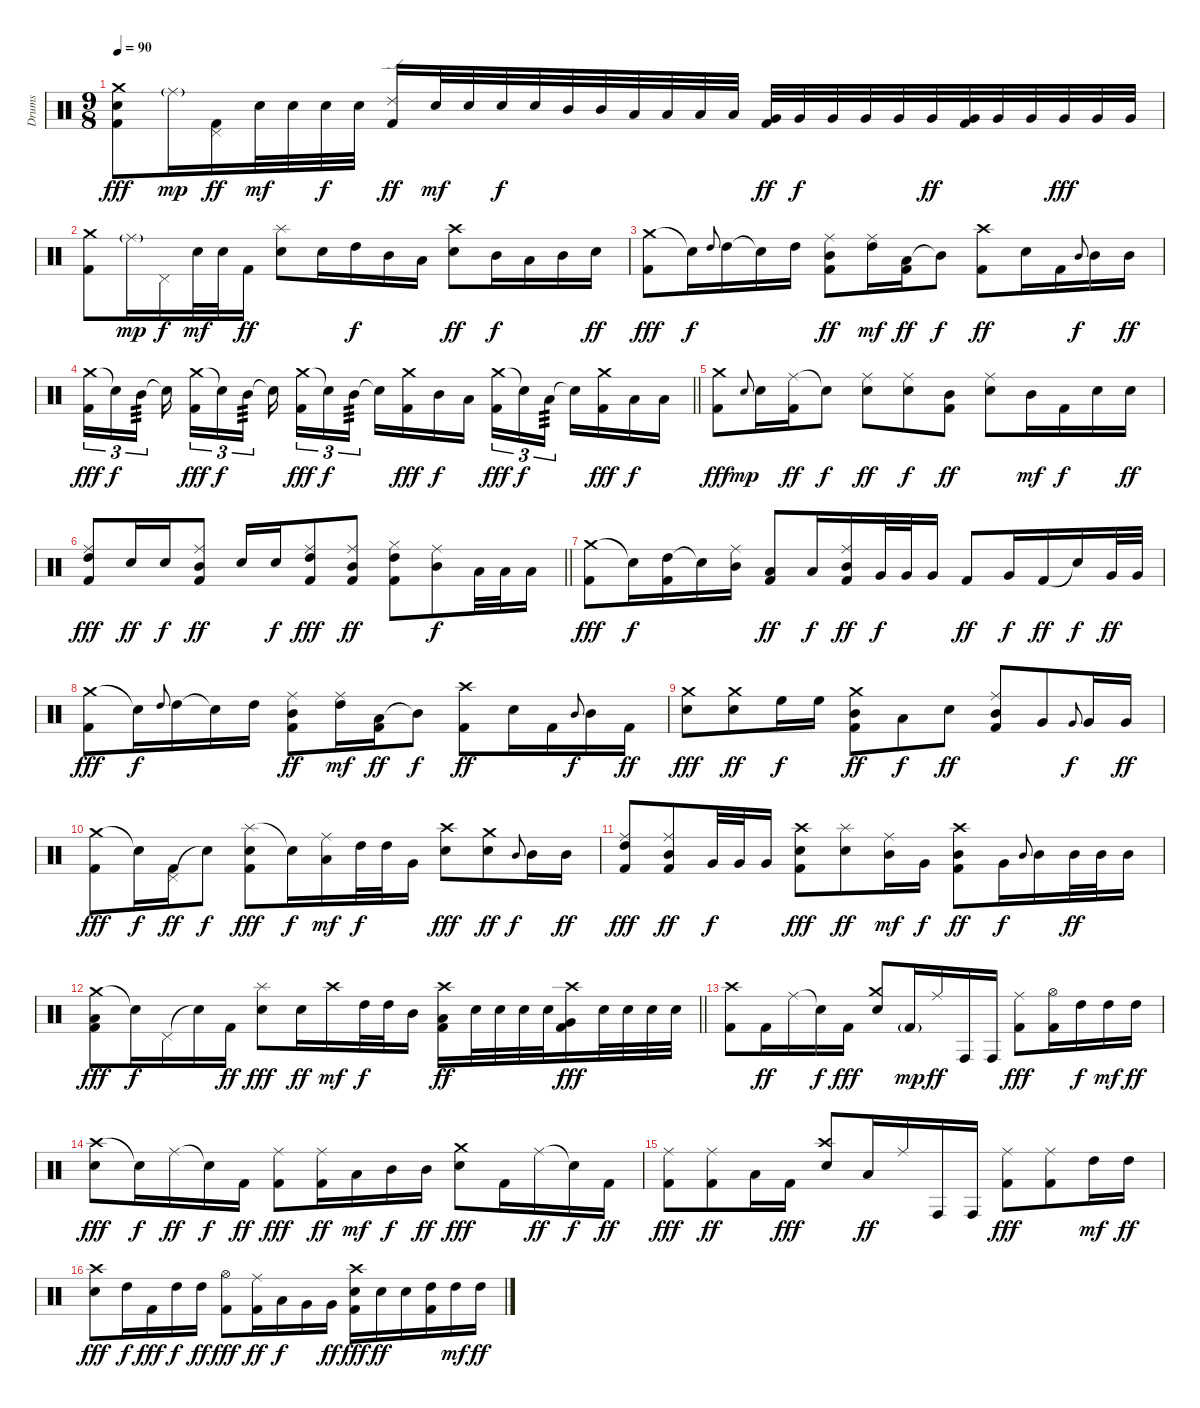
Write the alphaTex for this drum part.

\track ("Drums" "Drums") {instrument percussion}
\staff {score}
\articulation defaults
\ts (9 8)
\tempo 90
\clef neutral
\ks c
("Crash medium (hit)" "Snare (hit) 2" "Kick (hit) 2").8{dy fff} "Ride (middle)"{g}.16{dy mp} ("Pedal Hi-Hat (hit)" "Kick (hit) 2").16{dy ff} "Snare (hit) 2".32{dy mf} "Snare (hit) 2".32 "Snare (hit) 2".32{dy f} "Snare (hit) 2".32 ("Ride (edge) 2" "Kick (hit) 2").16{dy ff} "Snare (hit) 2".32{dy mf} "Snare (hit) 2".32 "Snare (hit) 2".32{dy f} "Snare (hit) 2".32 "Mid Tom (hit)".32 "Mid Tom (hit)".32 "Low Tom (hit)".32 "Low Tom (hit)".32 "Low Tom (hit)".32 "Low Tom (hit)".32 ("Very Low Tom (hit)" "Kick (hit) 2").32{dy ff} "Very Low Tom (hit)".32{dy f} "Very Low Tom (hit)".32 "Very Low Tom (hit)".32 "Very Low Tom (hit)".32 "Very Low Tom (hit)".32{dy ff} ("Very Low Tom (hit)" "Kick (hit) 2").32 "Very Low Tom (hit)".32 "Very Low Tom (hit)".32 "Very Low Tom (hit)".32{dy fff} "Very Low Tom (hit)".32 "Very Low Tom (hit)".32 |
("Crash medium (hit)" "Kick (hit) 2").8 "Ride (middle)"{g}.16{dy mp} "Pedal Hi-Hat (hit)".16{dy f} "Snare (hit) 2".32{dy mf} "Snare (hit) 2".32 "Kick (hit) 2".16{dy ff} ("Splash (hit)" "Snare (hit) 2").8 "Snare (hit) 2".16 "High Tom (hit)".16{dy f} "Mid Tom (hit)".16 "Low Tom (hit)".16 ("Crash high (hit)" "Snare (hit) 2").8{dy ff} "Mid Tom (hit)".16{dy f} "Low Tom (hit)".16 "Mid Tom (hit)".16 "Snare (hit) 2".16{dy ff} |
("Crash medium (hit)" "Kick (hit) 2").8{dy fff} "Snare (hit)"{t}.16{dy f} "High Tom (hit)".8{gr onbeat} "High Tom (hit)".16 "Snare (hit)"{t}.16 "High Tom (hit)".16 ("Ride (middle)" "Mid Tom (hit)" "Kick (hit) 2").8{dy ff} ("Ride (middle)" "High Tom (hit)").16{dy mf} ("Low Tom (hit)" "Kick (hit) 2").16{dy ff} "Mid Tom (hit)"{t}.8{dy f} ("Crash high (hit)" "Kick (hit) 2").8{dy ff} "Snare (hit) 2".16 "Kick (hit) 2".16 "Mid Tom (hit)".8{gr onbeat dy f} "Mid Tom (hit)".16 "Mid Tom (hit)".16{dy ff} |
\barLineRight lightlight
("Crash medium (hit)" "Kick (hit) 2").16{tu (3 2) dy fff} "Snare (hit)"{t}.16{tu (3 2) dy f} "Mid Tom (hit)".16{tu (3 2) tp 3 beam splitsecondary} "Snare (hit)"{t}.16{beam splitsecondary} ("Crash medium (hit)" "Kick (hit) 2").16{tu (3 2) dy fff} "Snare (hit)"{t}.16{tu (3 2) dy f} "Mid Tom (hit)".16{tu (3 2) tp 3 beam splitsecondary} "Snare (hit)"{t}.16 ("Crash medium (hit)" "Kick (hit) 2").16{tu (3 2) dy fff} "Snare (hit)"{t}.16{tu (3 2) dy f} "Mid Tom (hit)".16{tu (3 2) tp 3 beam splitsecondary} "Snare (hit)"{t}.16 ("Crash medium (hit)" "Kick (hit) 2").16{dy fff} "Mid Tom (hit)".16{dy f} "Low Tom (hit)".16 ("Crash medium (hit)" "Kick (hit) 2").16{tu (3 2) dy fff} "Snare (hit)"{t}.16{tu (3 2) dy f} "Low Tom (hit)".16{tu (3 2) tp 3 beam splitsecondary} "Snare (hit)"{t}.16 ("Crash medium (hit)" "Kick (hit) 2").16{dy fff} "Low Tom (hit)".16{dy f} "Low Tom (hit)".16 |
("Crash medium (hit)" "Kick (hit) 2").8{dy fff} "Snare (hit) 2".8{gr onbeat dy mp} "Snare (hit) 2".16 ("Ride (middle)" "Kick (hit) 2").16{dy ff} "Snare (hit)"{t}.8{dy f} ("Ride (middle)" "Snare (hit) 2").8{dy ff} ("Ride (middle)" "Snare (hit) 2").8{dy f} ("Mid Tom (hit)" "Kick (hit) 2").8{dy ff} ("Ride (middle)" "Snare (hit) 2").8 "Mid Tom (hit)".16{dy mf} "Kick (hit) 2".16{dy f} "Snare (hit) 2".16 "Snare (hit) 2".16{dy ff} |
\barLineRight lightlight
("Ride (middle)" "High Tom (hit)" "Kick (hit) 2").8{dy fff} "Snare (hit) 2".16{dy ff} "Snare (hit) 2".16{dy f} ("Ride (middle)" "Mid Tom (hit)" "Kick (hit) 2").8{dy ff} "Snare (hit) 2".16 "Snare (hit) 2".16{dy f} ("Ride (middle)" "High Tom (hit)" "Kick (hit) 2").8{dy fff} ("Ride (middle)" "Mid Tom (hit)" "Kick (hit) 2").8{dy ff} ("Hi-Hat (closed)" "High Tom (hit)" "Kick (hit) 2").8 ("Ride (middle)" "Mid Tom (hit)").8{dy f} "Low Tom (hit)".32 "Low Tom (hit)".32 "Low Tom (hit)".16 |
("Crash medium (hit)" "Kick (hit) 2").8{dy fff} "Snare (hit)"{t}.16{dy f} ("High Tom (hit)" "Kick (hit) 2").16 "Snare (hit)"{t}.16 ("Ride (middle)" "Mid Tom (hit)").16 ("Low Tom (hit)" "Kick (hit) 2").8{dy ff} "Low Tom (hit)".16{dy f} ("Ride (middle)" "Mid Tom (hit)" "Kick (hit) 2").16{dy ff} "Very Low Tom (hit)".32{dy f} "Very Low Tom (hit)".32 "Very Low Tom (hit)".16 "Kick (hit) 2".8{dy ff} "Very Low Tom (hit)".16{dy f} "Kick (hit) 2".16{dy ff} "Snare (hit)"{t}.16{dy f} "Very Low Tom (hit)".32{dy ff} "Very Low Tom (hit)".32 |
("Crash medium (hit)" "Kick (hit) 2").8{dy fff} "Snare (hit)"{t}.16{dy f} "High Tom (hit)".8{gr onbeat} "High Tom (hit)".16 "Snare (hit)"{t}.16 "High Tom (hit)".16 ("Ride (middle)" "Mid Tom (hit)" "Kick (hit) 2").8{dy ff} ("Ride (middle)" "High Tom (hit)").16{dy mf} ("Low Tom (hit)" "Kick (hit) 2").16{dy ff} "Mid Tom (hit)"{t}.8{dy f} ("Crash high (hit)" "Kick (hit) 2").8{dy ff} "Snare (hit) 2".16 "Kick (hit) 2".16 "Mid Tom (hit)".8{gr onbeat dy f} "Mid Tom (hit)".16 "Kick (hit) 2".16{dy ff} |
("Crash medium (hit)" "Snare (hit) 2").8{dy fff} ("Crash medium (hit)" "Snare (hit) 2").8{dy ff} "High Floor Tom (hit)".16{dy f} "High Floor Tom (hit)".16 ("Crash medium (hit)" "Mid Tom (hit)" "Kick (hit) 2").8{dy ff} "Low Tom (hit)".8{dy f} "Snare (hit) 2".8{dy ff} ("Ride (middle)" "Mid Tom (hit)" "Kick (hit) 2").8 "Very Low Tom (hit)".8 "Very Low Tom (hit)".8{gr onbeat dy f} "Very Low Tom (hit)".16 "Very Low Tom (hit)".16{dy ff} |
("Crash medium (hit)" "Kick (hit) 2").8{dy fff} "Snare (hit)"{t}.16{dy f} ("Pedal Hi-Hat (hit)" "Kick (hit) 2").16{dy ff} "Snare (hit)"{t}.8{dy f} ("Splash (hit)" "Snare (hit) 2" "Kick (hit) 2").8{dy fff} "Snare (hit)"{t}.16{dy f} ("Ride (middle)" "Low Tom (hit)").16{dy mf} "High Tom (hit)".32{dy f} "High Tom (hit)".32 "Very Low Tom (hit)".16 ("Crash high (hit)" "Snare (hit) 2").8{dy fff} ("Crash medium (hit)" "Snare (hit) 2").8{dy ff} "Mid Tom (hit)".8{gr onbeat dy f} "Mid Tom (hit)".16 "Mid Tom (hit)".16{dy ff} |
("Ride (middle)" "High Tom (hit)" "Kick (hit) 2").8{dy fff} ("Ride (middle)" "Mid Tom (hit)" "Kick (hit) 2").8{dy ff} "Very Low Tom (hit)".32{dy f} "Very Low Tom (hit)".32 "Very Low Tom (hit)".16 ("Crash high (hit)" "Snare (hit) 2" "Kick (hit) 2").8{dy fff} ("Splash (hit)" "Snare (hit) 2").8{dy ff} ("Ride (middle)" "Mid Tom (hit)").16{dy mf} "Very Low Tom (hit)".16{dy f} ("Crash high (hit)" "Mid Tom (hit)" "Kick (hit) 2").8{dy ff} "Very Low Tom (hit)".16{dy f} "Mid Tom (hit)".8{gr onbeat} "Mid Tom (hit)".16 "Mid Tom (hit)".32{dy ff} "Mid Tom (hit)".32 "Mid Tom (hit)".16 |
\barLineRight lightlight
("Crash medium (hit)" "Low Tom (hit)" "Kick (hit) 2").8{dy fff} "Snare (hit)"{t}.16{dy f} "Pedal Hi-Hat (hit)".16 "Snare (hit)"{t}.16 "Kick (hit) 2".16{dy ff} ("Splash (hit)" "Snare (hit) 2").8{dy fff} "Snare (hit) 2".16{dy ff} "Crash high (hit)".16{dy mf} "High Tom (hit)".32{dy f} "High Tom (hit)".32 "Mid Tom (hit)".16 ("Crash high (hit)" "Low Tom (hit)" "Kick (hit) 2").16{dy ff} "Snare (hit) 2".32 "Snare (hit) 2".32 "Snare (hit) 2".32 "Snare (hit) 2".32 ("Crash high (hit)" "Very Low Tom (hit)" "Kick (hit) 2").16{dy fff} "Snare (hit) 2".32 "Snare (hit) 2".32 "Snare (hit) 2".32 "Snare (hit) 2".32 |
\section ("" "")
("Crash high (hit)" "Kick (hit) 2").8 "Kick (hit) 2".16{dy ff} "Ride (middle)".16 "Snare (hit)"{t}.16{dy f} "Kick (hit) 2".16{dy fff} ("Crash medium (hit)" "Snare (hit) 2").8 "Kick (hit) 2"{g}.16{dy mp} "Ride (middle)".16{dy ff} "Conga high (hit)".16 "Conga high (hit)".16 ("Ride (middle)" "Kick (hit) 2").8{dy fff} ("Hi-Hat (open)" "Kick (hit) 2").16 "High Tom (hit)".16{dy f} "High Tom (hit)".16{dy mf} "High Tom (hit)".16{dy ff} |
("Crash high (hit)" "Snare (hit) 2").8{dy fff} "Snare (hit)"{t}.16{dy f} "Ride (middle)".16{dy ff} "Snare (hit)"{t}.16{dy f} "Kick (hit) 2".16{dy ff} ("Ride (middle)" "Kick (hit) 2").8{dy fff} ("Ride (middle)" "Kick (hit) 2").16{dy ff} "Low Tom (hit)".16{dy mf} "Mid Tom (hit)".16{dy f} "Mid Tom (hit)".16{dy ff} ("Crash medium (hit)" "Snare (hit) 2").8{dy fff} "Kick (hit) 2".16 "Ride (middle)".16{dy ff} "Snare (hit)"{t}.16{dy f} "Kick (hit) 2".16{dy ff} |
("Ride (middle)" "Kick (hit) 2").8{dy fff} ("Ride (middle)" "Kick (hit) 2").8{dy ff} "Low Tom (hit)".16 "Kick (hit) 2".16{dy fff} ("Crash high (hit)" "Snare (hit) 2").8 "Low Tom (hit)".16{dy ff} "Ride (middle)".16 "Conga high (hit)".16 "Conga high (hit)".16 ("Ride (middle)" "Kick (hit) 2").8{dy fff} ("Ride (middle)" "Kick (hit) 2").8 "High Tom (hit)".16{dy mf} "High Tom (hit)".16{dy ff} |
("Crash high (hit)" "Snare (hit) 2").8{dy fff} "High Tom (hit)".16{dy f} "Kick (hit) 2".16{dy fff} "High Tom (hit)".16{dy f} "High Tom (hit)".16{dy ff} ("Hi-Hat (open)" "Kick (hit) 2").8{dy fff} ("Ride (middle)" "Kick (hit) 2").16{dy ff} "Low Floor Tom (hit)".16{dy f} "Very Low Tom (hit)".16 "Very Low Tom (hit)".16{dy ff} ("Crash high (hit)" "Snare (hit) 2" "Kick (hit) 2").16{dy fff} "Snare (hit) 2".16{dy ff} "Snare (hit) 2".16 ("High Tom (hit)" "Kick (hit) 2").16 "High Tom (hit)".16{dy mf} "High Tom (hit)".16{dy ff}
